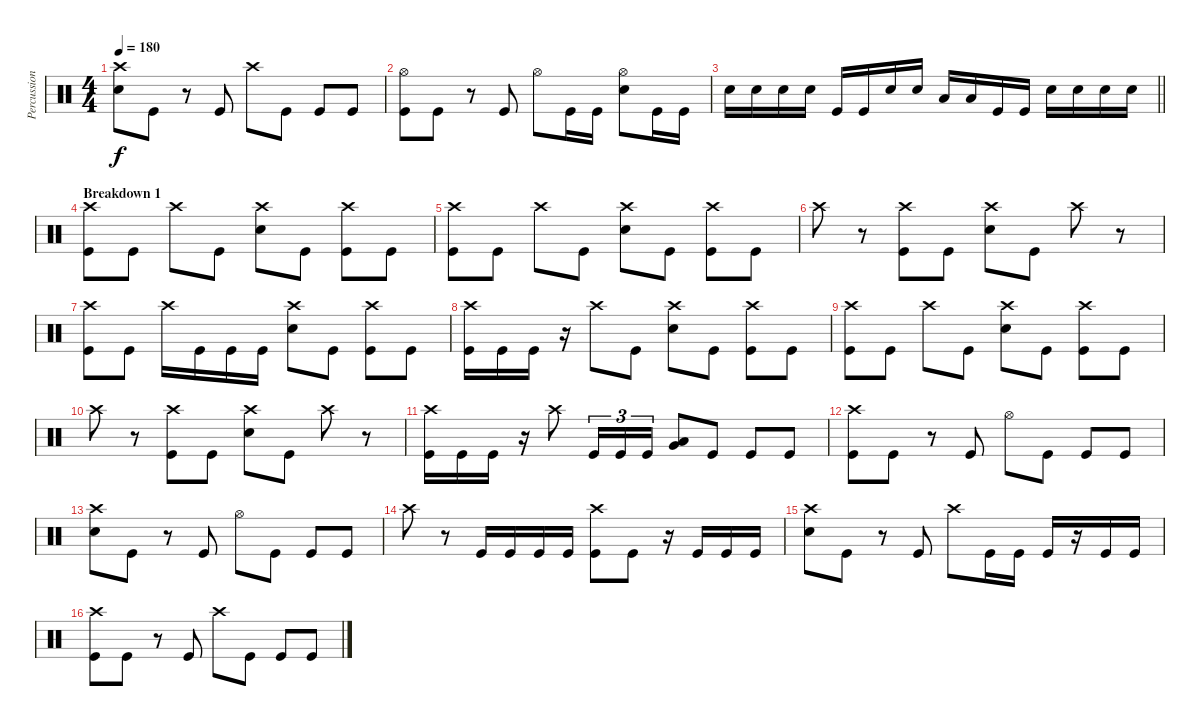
\track ("Percussion" "Percussion") {instrument percussion}
\staff {score}
\articulation defaults
\ts (4 4)
\tempo 180
\clef neutral
\ks c
("Crash high (hit)" "Electric Snare (hit)").8{dy f} "Kick (hit)".8 r.8 "Kick (hit)".8 "Crash high (hit)".8 "Kick (hit)".8 "Kick (hit)".8 "Kick (hit)".8 |
("Hi-Hat (open)" "Kick (hit)").8 "Kick (hit)".8 r.8 "Kick (hit)".8 "Hi-Hat (open)".8 "Kick (hit)".16 "Kick (hit)".16 ("Hi-Hat (open)" "Electric Snare (hit)").8 "Kick (hit)".16 "Kick (hit)".16 |
\barLineRight lightlight "Electric Snare (hit)".16 "Electric Snare (hit)".16 "Electric Snare (hit)".16 "Electric Snare (hit)".16 "Kick (hit)".16 "Kick (hit)".16 "Electric Snare (hit)".16 "Electric Snare (hit)".16 "Low Tom (hit)".16 "Low Tom (hit)".16 "Kick (hit)".16 "Kick (hit)".16 "Electric Snare (hit)".16 "Electric Snare (hit)".16 "Electric Snare (hit)".16 "Electric Snare (hit)".16
|
\section ("" "Breakdown 1")
("Crash high (hit)" "Kick (hit)").8 "Kick (hit)".8 "Crash high (hit)".8 "Kick (hit)".8 ("Crash high (hit)" "Electric Snare (hit)").8 "Kick (hit)".8 ("Crash high (hit)" "Kick (hit)").8 "Kick (hit)".8 |
("Crash high (hit)" "Kick (hit)").8 "Kick (hit)".8 "Crash high (hit)".8 "Kick (hit)".8 ("Crash high (hit)" "Electric Snare (hit)").8 "Kick (hit)".8 ("Crash high (hit)" "Kick (hit)").8 "Kick (hit)".8 |
"Crash high (hit)".8 r.8 ("Crash high (hit)" "Kick (hit)").8 "Kick (hit)".8 ("Crash high (hit)" "Electric Snare (hit)").8 "Kick (hit)".8 "Crash high (hit)".8 r.8 |
("Crash high (hit)" "Kick (hit)").8 "Kick (hit)".8 "Crash high (hit)".16 "Kick (hit)".16 "Kick (hit)".16 "Kick (hit)".16 ("Crash high (hit)" "Electric Snare (hit)").8 "Kick (hit)".8 ("Crash high (hit)" "Kick (hit)").8 "Kick (hit)".8 |
("Crash high (hit)" "Kick (hit)").16 "Kick (hit)".16 "Kick (hit)".16 r.16 "Crash high (hit)".8 "Kick (hit)".8 ("Crash high (hit)" "Electric Snare (hit)").8 "Kick (hit)".8 ("Crash high (hit)" "Kick (hit)").8 "Kick (hit)".8 |
("Crash high (hit)" "Kick (hit)").8 "Kick (hit)".8 "Crash high (hit)".8 "Kick (hit)".8 ("Crash high (hit)" "Electric Snare (hit)").8 "Kick (hit)".8 ("Crash high (hit)" "Kick (hit)").8 "Kick (hit)".8 |
"Crash high (hit)".8 r.8 ("Crash high (hit)" "Kick (hit)").8 "Kick (hit)".8 ("Crash high (hit)" "Electric Snare (hit)").8 "Kick (hit)".8 "Crash high (hit)".8 r.8 |
("Crash high (hit)" "Kick (hit)").16 "Kick (hit)".16 "Kick (hit)".16 r.16 "Crash high (hit)".8 "Kick (hit)".16{tu (3 2)} "Kick (hit)".16{tu (3 2)} "Kick (hit)".16{tu (3 2)} ("Low Tom (hit)" "Very Low Tom (hit)").8 "Kick (hit)".8 "Kick (hit)".8 "Kick (hit)".8 |
("Crash high (hit)" "Kick (hit)").8 "Kick (hit)".8 r.8 "Kick (hit)".8 "Hi-Hat (open)".8 "Kick (hit)".8 "Kick (hit)".8 "Kick (hit)".8 |
("Crash high (hit)" "Electric Snare (hit)").8 "Kick (hit)".8 r.8 "Kick (hit)".8 "Hi-Hat (open)".8 "Kick (hit)".8 "Kick (hit)".8 "Kick (hit)".8 |
"Crash high (hit)".8 r.8 "Kick (hit)".16 "Kick (hit)".16 "Kick (hit)".16 "Kick (hit)".16 ("Crash high (hit)" "Kick (hit)").8 "Kick (hit)".8 r.16 "Kick (hit)".16 "Kick (hit)".16 "Kick (hit)".16 |
("Crash high (hit)" "Electric Snare (hit)").8 "Kick (hit)".8 r.8 "Kick (hit)".8 "Crash high (hit)".8 "Kick (hit)".16 "Kick (hit)".16 "Kick (hit)".16 r.16 "Kick (hit)".16 "Kick (hit)".16 |
("Crash high (hit)" "Kick (hit)").8 "Kick (hit)".8 r.8 "Kick (hit)".8 "Crash high (hit)".8 "Kick (hit)".8 "Kick (hit)".8 "Kick (hit)".8
